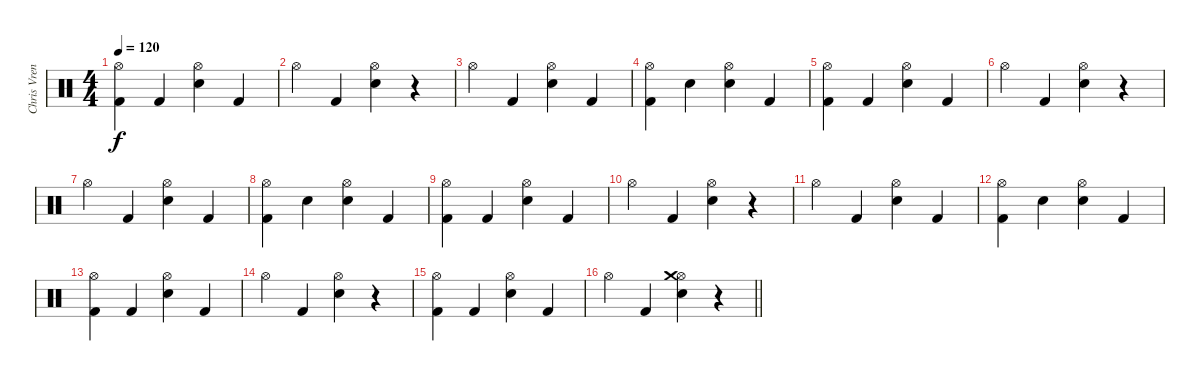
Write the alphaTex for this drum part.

\track ("Chris Vrenna" "Chris Vren") {instrument percussion}
\staff {score}
\articulation defaults
\ts (4 4)
\tempo 120
\clef neutral
\ks c
("Hi-Hat (open)" "Kick (hit) 2").4{dy f} "Kick (hit) 2".4 ("Hi-Hat (open)" "Snare (hit) 2").4 "Kick (hit) 2".4 |
"Hi-Hat (open)".4 "Kick (hit) 2".4 ("Hi-Hat (open)" "Snare (hit) 2").4 r.4 |
"Hi-Hat (open)".4 "Kick (hit) 2".4 ("Hi-Hat (open)" "Snare (hit) 2").4 "Kick (hit) 2".4 |
("Hi-Hat (open)" "Kick (hit) 2").4 "Snare (hit) 2".4 ("Hi-Hat (open)" "Electric Snare (hit)").4 "Kick (hit) 2".4 |
("Hi-Hat (open)" "Kick (hit) 2").4 "Kick (hit) 2".4 ("Hi-Hat (open)" "Snare (hit) 2").4 "Kick (hit) 2".4 |
"Hi-Hat (open)".4 "Kick (hit) 2".4 ("Hi-Hat (open)" "Snare (hit) 2").4 r.4 |
"Hi-Hat (open)".4 "Kick (hit) 2".4 ("Hi-Hat (open)" "Snare (hit) 2").4 "Kick (hit) 2".4 |
("Hi-Hat (open)" "Kick (hit) 2").4 "Snare (hit) 2".4 ("Hi-Hat (open)" "Electric Snare (hit)").4 "Kick (hit) 2".4 |
("Hi-Hat (open)" "Kick (hit) 2").4 "Kick (hit) 2".4 ("Hi-Hat (open)" "Snare (hit) 2").4 "Kick (hit) 2".4 |
"Hi-Hat (open)".4 "Kick (hit) 2".4 ("Hi-Hat (open)" "Snare (hit) 2").4 r.4 |
"Hi-Hat (open)".4 "Kick (hit) 2".4 ("Hi-Hat (open)" "Snare (hit) 2").4 "Kick (hit) 2".4 |
("Hi-Hat (open)" "Kick (hit) 2").4 "Snare (hit) 2".4 ("Hi-Hat (open)" "Electric Snare (hit)").4 "Kick (hit) 2".4 |
("Hi-Hat (open)" "Kick (hit) 2").4 "Kick (hit) 2".4 ("Hi-Hat (open)" "Snare (hit) 2").4 "Kick (hit) 2".4 |
"Hi-Hat (open)".4 "Kick (hit) 2".4 ("Hi-Hat (open)" "Snare (hit) 2").4 r.4 |
("Hi-Hat (open)" "Kick (hit) 2").4 "Kick (hit) 2".4 ("Hi-Hat (open)" "Snare (hit) 2").4 "Kick (hit) 2".4 |
\barLineRight lightlight "Hi-Hat (open)".4 "Kick (hit) 2".4
("Hi-Hat (open)" "Snare (hit) 2" "Crash medium (hit)").4 r.4
